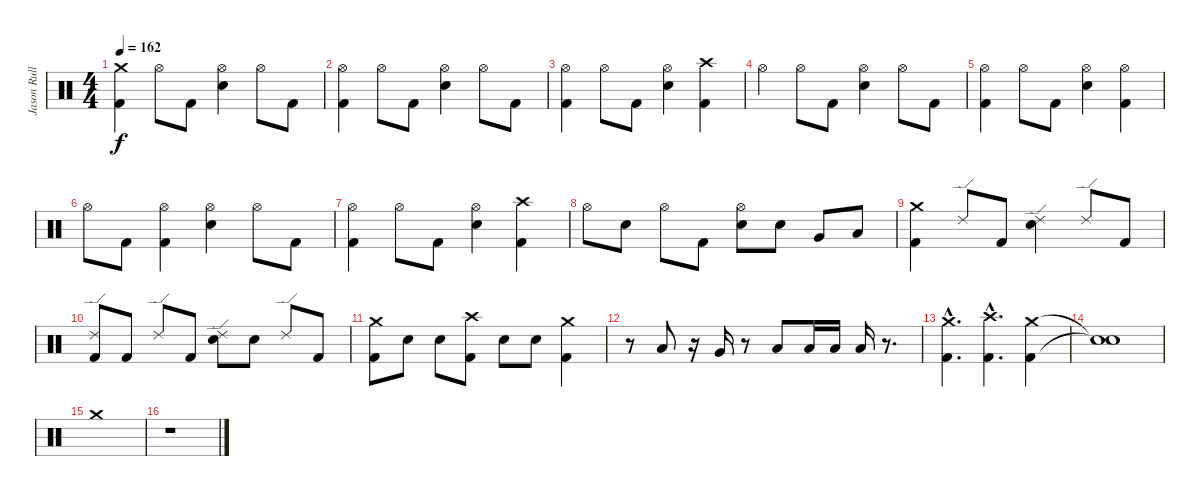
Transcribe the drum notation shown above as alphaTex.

\track ("Jason Rullo" "Jason Rull") {instrument percussion}
\staff {score}
\articulation defaults
\ts (4 4)
\tempo 162
\clef neutral
\ks c
("Kick (hit) 2" "Crash medium (hit)").4{dy f} "Hi-Hat (open)".8 "Kick (hit) 2".8 ("Electric Snare (hit)" "Hi-Hat (open)").4 "Hi-Hat (open)".8 "Kick (hit) 2".8 |
("Hi-Hat (open)" "Kick (hit) 2").4 "Hi-Hat (open)".8 "Kick (hit) 2".8 ("Electric Snare (hit)" "Hi-Hat (open)").4 "Hi-Hat (open)".8 "Kick (hit) 2".8 |
("Hi-Hat (open)" "Kick (hit) 2").4 "Hi-Hat (open)".8 "Kick (hit) 2".8 ("Electric Snare (hit)" "Hi-Hat (open)").4 ("Crash high (hit)" "Kick (hit) 2").4 |
"Hi-Hat (open)".4 "Hi-Hat (open)".8 "Kick (hit) 2".8 ("Electric Snare (hit)" "Hi-Hat (open)").4 "Hi-Hat (open)".8 "Kick (hit) 2".8 |
("Hi-Hat (open)" "Kick (hit) 2").4 "Hi-Hat (open)".8 "Kick (hit) 2".8 ("Electric Snare (hit)" "Hi-Hat (open)").4 ("Hi-Hat (open)" "Kick (hit) 2").4 |
"Hi-Hat (open)".8 "Kick (hit) 2".8 ("Kick (hit) 2" "Hi-Hat (open)").4 ("Electric Snare (hit)" "Hi-Hat (open)").4 "Hi-Hat (open)".8 "Kick (hit) 2".8 |
("Hi-Hat (open)" "Kick (hit) 2").4 "Hi-Hat (open)".8 "Kick (hit) 2".8 ("Electric Snare (hit)" "Hi-Hat (open)").4 ("Crash high (hit)" "Kick (hit) 2").4 |
"Hi-Hat (open)".8 "Electric Snare (hit)".8 "Hi-Hat (open)".8 "Kick (hit) 2".8 ("Electric Snare (hit)" "Hi-Hat (open)").8 "Electric Snare (hit)".8 "Very Low Tom (hit)".8 "Low Floor Tom (hit)".8 |
("Kick (hit) 2" "Crash medium (hit)").4 "Ride (edge) 2".8 "Kick (hit) 2".8 ("Electric Snare (hit)" "Ride (edge) 2").4 "Ride (edge) 2".8 "Kick (hit) 2".8 |
("Kick (hit) 2" "Ride (edge) 2").8 "Kick (hit) 2".8 "Ride (edge) 2".8 "Kick (hit) 2".8 ("Electric Snare (hit)" "Ride (edge) 2").8 "Electric Snare (hit)".8 "Ride (edge) 2".8 "Kick (hit) 2".8 |
("Crash medium (hit)" "Kick (hit) 2").8 "Electric Snare (hit)".8 "Electric Snare (hit)".8 ("Crash high (hit)" "Kick (hit) 2").8 "Electric Snare (hit)".8 "Electric Snare (hit)".8 ("Crash medium (hit)" "Kick (hit) 2").4 |
r.8 "Low Tom (hit)".8 r.16 "Very Low Tom (hit)".16 r.8 "Low Floor Tom (hit)".8 "Low Floor Tom (hit)".16 "Low Floor Tom (hit)".16 "Low Floor Tom (hit)".16 r.8{d} |
("Crash medium (hit)"{hac} "Kick (hit) 2"{hac}).4{d} ("Crash high (hit)"{hac} "Kick (hit) 2"{hac}).4{d} ("Crash medium (hit)" "Kick (hit) 2").4 |
("Snare (hit)"{t} "Snare (hit)"{t}).1 |
"Crash medium (hit)".1 |
r.1
